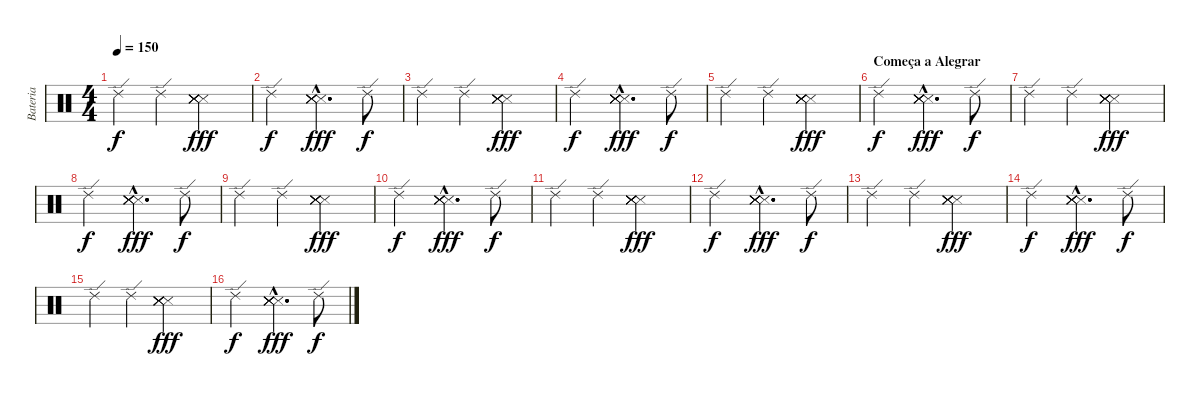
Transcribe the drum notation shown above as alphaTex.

\track ("Bateria" "Bateria") {instrument percussion}
\staff {score}
\articulation defaults
\ts (4 4)
\tempo 150
\clef neutral
\ks c "Ride (edge) 2".4{dy f} "Ride (edge) 2".4
("Snare (side stick) 3" "Snare (side stick) 3" "Snare (side stick) 3" "Snare (side stick) 3" "Snare (side stick) 3" "Snare (side stick) 3").2{dy fff} |
"Ride (edge) 2".2{dy f} ("Snare (side stick) 3"{hac} "Snare (side stick) 3"{hac} "Snare (side stick) 3"{hac} "Snare (side stick) 3"{hac} "Snare (side stick) 3"{hac} "Snare (side stick) 3"{hac}).4{d dy fff} "Ride (edge) 2".8{dy f} |
"Ride (edge) 2".4 "Ride (edge) 2".4 ("Snare (side stick) 3" "Snare (side stick) 3" "Snare (side stick) 3" "Snare (side stick) 3" "Snare (side stick) 3" "Snare (side stick) 3").2{dy fff} |
"Ride (edge) 2".2{dy f} ("Snare (side stick) 3"{hac} "Snare (side stick) 3"{hac} "Snare (side stick) 3"{hac} "Snare (side stick) 3"{hac} "Snare (side stick) 3"{hac} "Snare (side stick) 3"{hac}).4{d dy fff} "Ride (edge) 2".8{dy f} |
"Ride (edge) 2".4 "Ride (edge) 2".4 ("Snare (side stick) 3" "Snare (side stick) 3" "Snare (side stick) 3" "Snare (side stick) 3" "Snare (side stick) 3" "Snare (side stick) 3").2{dy fff} |
\section ("" "Começa a Alegrar")
"Ride (edge) 2".2{dy f} ("Snare (side stick) 3"{hac} "Snare (side stick) 3"{hac} "Snare (side stick) 3"{hac} "Snare (side stick) 3"{hac} "Snare (side stick) 3"{hac} "Snare (side stick) 3"{hac}).4{d dy fff} "Ride (edge) 2".8{dy f} |
"Ride (edge) 2".4 "Ride (edge) 2".4 ("Snare (side stick) 3" "Snare (side stick) 3" "Snare (side stick) 3" "Snare (side stick) 3" "Snare (side stick) 3" "Snare (side stick) 3").2{dy fff} |
"Ride (edge) 2".2{dy f} ("Snare (side stick) 3"{hac} "Snare (side stick) 3"{hac} "Snare (side stick) 3"{hac} "Snare (side stick) 3"{hac} "Snare (side stick) 3"{hac} "Snare (side stick) 3"{hac}).4{d dy fff} "Ride (edge) 2".8{dy f} |
"Ride (edge) 2".4 "Ride (edge) 2".4 ("Snare (side stick) 3" "Snare (side stick) 3" "Snare (side stick) 3" "Snare (side stick) 3" "Snare (side stick) 3" "Snare (side stick) 3").2{dy fff} |
"Ride (edge) 2".2{dy f} ("Snare (side stick) 3"{hac} "Snare (side stick) 3"{hac} "Snare (side stick) 3"{hac} "Snare (side stick) 3"{hac} "Snare (side stick) 3"{hac} "Snare (side stick) 3"{hac}).4{d dy fff} "Ride (edge) 2".8{dy f} |
"Ride (edge) 2".4 "Ride (edge) 2".4 ("Snare (side stick) 3" "Snare (side stick) 3" "Snare (side stick) 3" "Snare (side stick) 3" "Snare (side stick) 3" "Snare (side stick) 3").2{dy fff} |
"Ride (edge) 2".2{dy f} ("Snare (side stick) 3"{hac} "Snare (side stick) 3"{hac} "Snare (side stick) 3"{hac} "Snare (side stick) 3"{hac} "Snare (side stick) 3"{hac} "Snare (side stick) 3"{hac}).4{d dy fff} "Ride (edge) 2".8{dy f} |
"Ride (edge) 2".4 "Ride (edge) 2".4 ("Snare (side stick) 3" "Snare (side stick) 3" "Snare (side stick) 3" "Snare (side stick) 3" "Snare (side stick) 3" "Snare (side stick) 3").2{dy fff} |
"Ride (edge) 2".2{dy f} ("Snare (side stick) 3"{hac} "Snare (side stick) 3"{hac} "Snare (side stick) 3"{hac} "Snare (side stick) 3"{hac} "Snare (side stick) 3"{hac} "Snare (side stick) 3"{hac}).4{d dy fff} "Ride (edge) 2".8{dy f} |
"Ride (edge) 2".4 "Ride (edge) 2".4 ("Snare (side stick) 3" "Snare (side stick) 3" "Snare (side stick) 3" "Snare (side stick) 3" "Snare (side stick) 3" "Snare (side stick) 3").2{dy fff} |
"Ride (edge) 2".2{dy f} ("Snare (side stick) 3"{hac} "Snare (side stick) 3"{hac} "Snare (side stick) 3"{hac} "Snare (side stick) 3"{hac} "Snare (side stick) 3"{hac} "Snare (side stick) 3"{hac}).4{d dy fff} "Ride (edge) 2".8{dy f}
